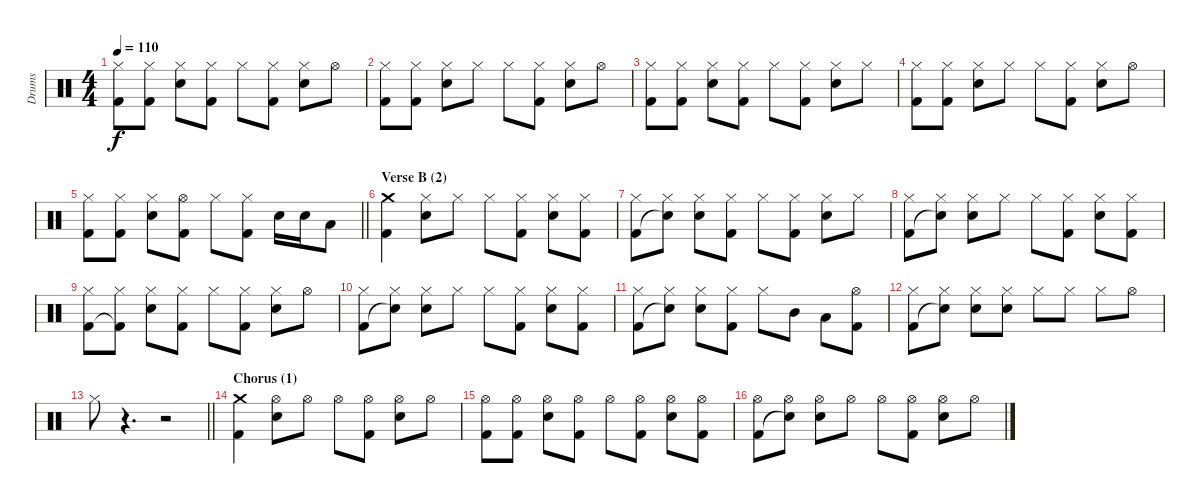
\track ("Drums" "Drums") {instrument percussion}
\staff {score}
\articulation defaults
\ts (4 4)
\tempo 110
\clef neutral
\ks c
("Hi-Hat (closed)" "Kick (hit) 2").8{dy f} ("Hi-Hat (closed)" "Kick (hit) 2").8 ("Hi-Hat (closed)" "Electric Snare (hit)").8 ("Hi-Hat (closed)" "Kick (hit) 2").8 "Hi-Hat (closed)".8 ("Hi-Hat (closed)" "Kick (hit) 2").8 ("Hi-Hat (closed)" "Electric Snare (hit)").8 "Hi-Hat (open)".8 |
("Hi-Hat (closed)" "Kick (hit) 2").8 ("Hi-Hat (closed)" "Kick (hit) 2").8 ("Hi-Hat (closed)" "Electric Snare (hit)").8 "Hi-Hat (closed)".8 "Hi-Hat (closed)".8 ("Hi-Hat (closed)" "Kick (hit) 2").8 ("Hi-Hat (closed)" "Electric Snare (hit)").8 "Hi-Hat (open)".8 |
("Hi-Hat (closed)" "Kick (hit) 2").8 ("Hi-Hat (closed)" "Kick (hit) 2").8 ("Hi-Hat (closed)" "Electric Snare (hit)").8 ("Hi-Hat (closed)" "Kick (hit) 2").8 "Hi-Hat (closed)".8 ("Hi-Hat (closed)" "Kick (hit) 2").8 ("Hi-Hat (closed)" "Electric Snare (hit)").8 "Hi-Hat (closed)".8 |
("Hi-Hat (closed)" "Kick (hit) 2").8 ("Hi-Hat (closed)" "Kick (hit) 2").8 ("Hi-Hat (closed)" "Electric Snare (hit)").8 "Hi-Hat (closed)".8 "Hi-Hat (closed)".8 ("Hi-Hat (closed)" "Kick (hit) 2").8 ("Hi-Hat (closed)" "Electric Snare (hit)").8 "Hi-Hat (open)".8 |
\barLineRight lightlight
("Hi-Hat (closed)" "Kick (hit) 2").8 ("Hi-Hat (closed)" "Kick (hit) 2").8 ("Hi-Hat (closed)" "Electric Snare (hit)").8 ("Hi-Hat (open)" "Kick (hit) 2").8 "Hi-Hat (closed)".8 ("Hi-Hat (closed)" "Kick (hit) 2").8 "Electric Snare (hit)".16 "Electric Snare (hit)".16 "Low Floor Tom (hit)".8 |
\section ("" "Verse B (2)")
("Crash medium (hit)" "Kick (hit) 2").4 ("Hi-Hat (closed)" "Electric Snare (hit)").8 "Hi-Hat (closed)".8 "Hi-Hat (closed)".8 ("Hi-Hat (closed)" "Kick (hit) 2").8 ("Hi-Hat (closed)" "Electric Snare (hit)").8 ("Hi-Hat (closed)" "Kick (hit) 2").8 |
("Hi-Hat (closed)" "Kick (hit) 2").8 ("Hi-Hat (closed)" "Snare (hit)"{t}).8 ("Hi-Hat (closed)" "Electric Snare (hit)").8 ("Hi-Hat (closed)" "Kick (hit) 2").8 "Hi-Hat (closed)".8 ("Hi-Hat (closed)" "Kick (hit) 2").8 ("Hi-Hat (closed)" "Electric Snare (hit)").8 "Hi-Hat (closed)".8 |
("Hi-Hat (closed)" "Kick (hit) 2").8 ("Hi-Hat (closed)" "Snare (hit)"{t}).8 ("Hi-Hat (closed)" "Electric Snare (hit)").8 "Hi-Hat (closed)".8 "Hi-Hat (closed)".8 ("Hi-Hat (closed)" "Kick (hit) 2").8 ("Hi-Hat (closed)" "Electric Snare (hit)").8 ("Hi-Hat (closed)" "Kick (hit) 2").8 |
("Hi-Hat (closed)" "Kick (hit) 2").8 ("Hi-Hat (closed)" "Kick (hit) 2"{t}).8 ("Hi-Hat (closed)" "Electric Snare (hit)").8 ("Hi-Hat (closed)" "Kick (hit) 2").8 "Hi-Hat (closed)".8 ("Hi-Hat (closed)" "Kick (hit) 2").8 ("Hi-Hat (closed)" "Electric Snare (hit)").8 "Hi-Hat (open)".8 |
("Hi-Hat (closed)" "Kick (hit) 2").8 ("Hi-Hat (closed)" "Snare (hit)"{t}).8 ("Hi-Hat (closed)" "Electric Snare (hit)").8 "Hi-Hat (closed)".8 "Hi-Hat (closed)".8 ("Hi-Hat (closed)" "Kick (hit) 2").8 ("Hi-Hat (closed)" "Electric Snare (hit)").8 ("Hi-Hat (closed)" "Kick (hit) 2").8 |
("Hi-Hat (closed)" "Kick (hit) 2").8 ("Hi-Hat (closed)" "Snare (hit)"{t}).8 ("Hi-Hat (closed)" "Electric Snare (hit)").8 ("Hi-Hat (closed)" "Kick (hit) 2").8 "Hi-Hat (closed)".8 "Mid Tom (hit)".8 "Low Floor Tom (hit)".8 ("Hi-Hat (open)" "Kick (hit) 2").8 |
("Hi-Hat (closed)" "Kick (hit) 2").8 ("Hi-Hat (closed)" "Snare (hit)"{t}).8 ("Hi-Hat (closed)" "Electric Snare (hit)").8 ("Hi-Hat (closed)" "Electric Snare (hit)").8 "Hi-Hat (closed)".8 "Hi-Hat (closed)".8 "Hi-Hat (closed)".8 "Hi-Hat (open)".8 |
\barLineRight lightlight "Hi-Hat (closed)".8
r.4{d} r.2 |
\section ("" "Chorus (1)")
("Crash medium (hit)" "Kick (hit) 2").4 ("Hi-Hat (open)" "Electric Snare (hit)").8 "Hi-Hat (open)".8 "Hi-Hat (open)".8 ("Hi-Hat (open)" "Kick (hit) 2").8 ("Hi-Hat (open)" "Electric Snare (hit)").8 "Hi-Hat (open)".8 |
("Hi-Hat (open)" "Kick (hit) 2").8 ("Hi-Hat (open)" "Kick (hit) 2").8 ("Hi-Hat (open)" "Electric Snare (hit)").8 ("Hi-Hat (open)" "Kick (hit) 2").8 "Hi-Hat (open)".8 ("Hi-Hat (open)" "Kick (hit) 2").8 ("Hi-Hat (open)" "Electric Snare (hit)").8 ("Hi-Hat (open)" "Kick (hit) 2").8 |
("Hi-Hat (open)" "Kick (hit) 2").8 ("Hi-Hat (open)" "Snare (hit)"{t}).8 ("Hi-Hat (open)" "Electric Snare (hit)").8 "Hi-Hat (open)".8 "Hi-Hat (open)".8 ("Hi-Hat (open)" "Kick (hit) 2").8 ("Hi-Hat (open)" "Electric Snare (hit)").8 "Hi-Hat (open)".8
